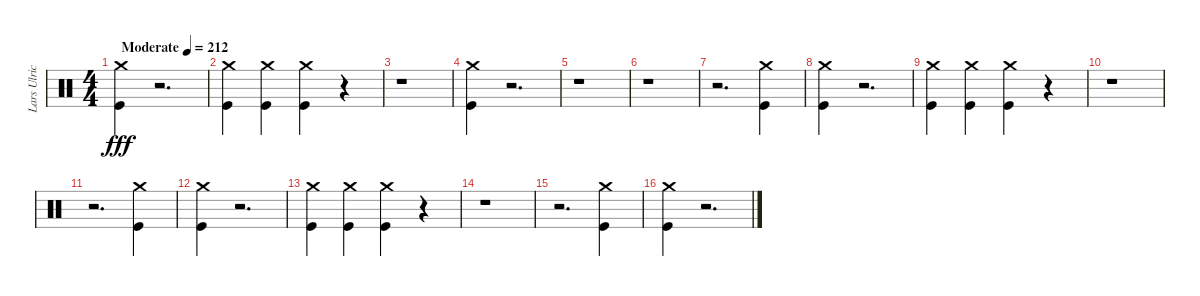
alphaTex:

\track ("Lars Ulrich" "Lars Ulric") {instrument percussion}
\staff {score}
\articulation defaults
\ts (4 4)
\tempo (212 "Moderate")
\clef neutral
\ks c
("Crash medium (hit)" "Kick (hit)").4{dy fff} r.2{d} |
("Crash medium (hit)" "Kick (hit)").4 ("Crash medium (hit)" "Kick (hit)").4 ("Crash medium (hit)" "Kick (hit)").4 r.4 |
r.1 |
("Kick (hit)" "Crash medium (hit)").4 r.2{d} |
r.1 |
r.1 |
r.2{d} ("Kick (hit)" "Crash medium (hit)").4 |
("Kick (hit)" "Crash medium (hit)").4 r.2{d} |
("Crash medium (hit)" "Kick (hit)").4 ("Kick (hit)" "Crash medium (hit)").4 ("Kick (hit)" "Crash medium (hit)").4 r.4 |
r.1 |
r.2{d} ("Kick (hit)" "Crash medium (hit)").4 |
("Kick (hit)" "Crash medium (hit)").4 r.2{d} |
("Kick (hit)" "Crash medium (hit)").4 ("Crash medium (hit)" "Kick (hit)").4 ("Kick (hit)" "Crash medium (hit)").4 r.4 |
r.1 |
r.2{d} ("Kick (hit)" "Crash medium (hit)").4 |
("Kick (hit)" "Crash medium (hit)").4 r.2{d}
